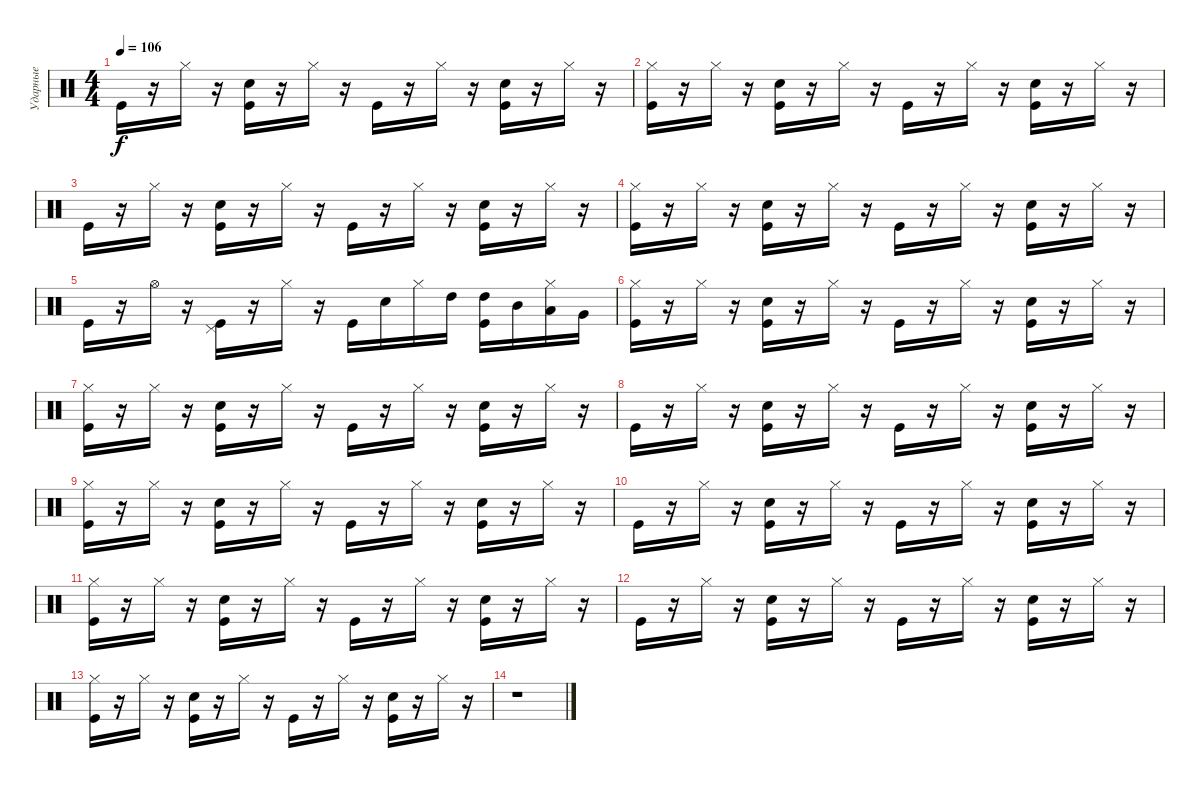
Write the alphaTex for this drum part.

\track ("Ударные" "Ударные") {instrument percussion}
\staff {score}
\articulation defaults
\ts (4 4)
\tempo 106
\clef neutral
\ks c "Kick (hit)".16{dy f}
r.16 "Hi-Hat (closed)".16 r.16 ("Snare (hit) 2" "Kick (hit)").16 r.16 "Hi-Hat (closed)".16 r.16 "Kick (hit)".16 r.16 "Hi-Hat (closed)".16 r.16 ("Snare (hit) 2" "Kick (hit)").16 r.16 "Hi-Hat (closed)".16 r.16 |
("Kick (hit)" "Hi-Hat (closed)").16 r.16 "Hi-Hat (closed)".16 r.16 ("Snare (hit) 2" "Kick (hit)").16 r.16 "Hi-Hat (closed)".16 r.16 "Kick (hit)".16 r.16 "Hi-Hat (closed)".16 r.16 ("Snare (hit) 2" "Kick (hit)").16 r.16 "Hi-Hat (closed)".16 r.16 |
"Kick (hit)".16 r.16 "Hi-Hat (closed)".16 r.16 ("Snare (hit) 2" "Kick (hit)").16 r.16 "Hi-Hat (closed)".16 r.16 "Kick (hit)".16 r.16 "Hi-Hat (closed)".16 r.16 ("Snare (hit) 2" "Kick (hit)").16 r.16 "Hi-Hat (closed)".16 r.16 |
("Kick (hit)" "Hi-Hat (closed)").16 r.16 "Hi-Hat (closed)".16 r.16 ("Snare (hit) 2" "Kick (hit)").16 r.16 "Hi-Hat (closed)".16 r.16 "Kick (hit)".16 r.16 "Hi-Hat (closed)".16 r.16 ("Snare (hit) 2" "Kick (hit)").16 r.16 "Hi-Hat (closed)".16 r.16 |
"Kick (hit)".16 r.16 "Hi-Hat (open)".16 r.16 ("Pedal Hi-Hat (hit)" "Kick (hit)").16 r.16 "Hi-Hat (closed)".16 r.16 "Kick (hit)".16 "Snare (hit) 2".16 "Hi-Hat (closed)".16 "High Tom (hit)".16 ("High Tom (hit)" "Kick (hit)").16 "Mid Tom (hit)".16 ("Low Tom (hit)" "Hi-Hat (closed)").16 "Very Low Tom (hit)".16 |
("Kick (hit)" "Hi-Hat (closed)").16 r.16 "Hi-Hat (closed)".16 r.16 ("Snare (hit) 2" "Kick (hit)").16 r.16 "Hi-Hat (closed)".16 r.16 "Kick (hit)".16 r.16 "Hi-Hat (closed)".16 r.16 ("Snare (hit) 2" "Kick (hit)").16 r.16 "Hi-Hat (closed)".16 r.16 |
("Kick (hit)" "Hi-Hat (closed)").16 r.16 "Hi-Hat (closed)".16 r.16 ("Snare (hit) 2" "Kick (hit)").16 r.16 "Hi-Hat (closed)".16 r.16 "Kick (hit)".16 r.16 "Hi-Hat (closed)".16 r.16 ("Snare (hit) 2" "Kick (hit)").16 r.16 "Hi-Hat (closed)".16 r.16 |
"Kick (hit)".16 r.16 "Hi-Hat (closed)".16 r.16 ("Snare (hit) 2" "Kick (hit)").16 r.16 "Hi-Hat (closed)".16 r.16 "Kick (hit)".16 r.16 "Hi-Hat (closed)".16 r.16 ("Snare (hit) 2" "Kick (hit)").16 r.16 "Hi-Hat (closed)".16 r.16 |
("Kick (hit)" "Hi-Hat (closed)").16 r.16 "Hi-Hat (closed)".16 r.16 ("Snare (hit) 2" "Kick (hit)").16 r.16 "Hi-Hat (closed)".16 r.16 "Kick (hit)".16 r.16 "Hi-Hat (closed)".16 r.16 ("Snare (hit) 2" "Kick (hit)").16 r.16 "Hi-Hat (closed)".16 r.16 |
"Kick (hit)".16 r.16 "Hi-Hat (closed)".16 r.16 ("Snare (hit) 2" "Kick (hit)").16 r.16 "Hi-Hat (closed)".16 r.16 "Kick (hit)".16 r.16 "Hi-Hat (closed)".16 r.16 ("Snare (hit) 2" "Kick (hit)").16 r.16 "Hi-Hat (closed)".16 r.16 |
("Kick (hit)" "Hi-Hat (closed)").16 r.16 "Hi-Hat (closed)".16 r.16 ("Snare (hit) 2" "Kick (hit)").16 r.16 "Hi-Hat (closed)".16 r.16 "Kick (hit)".16 r.16 "Hi-Hat (closed)".16 r.16 ("Snare (hit) 2" "Kick (hit)").16 r.16 "Hi-Hat (closed)".16 r.16 |
"Kick (hit)".16 r.16 "Hi-Hat (closed)".16 r.16 ("Snare (hit) 2" "Kick (hit)").16 r.16 "Hi-Hat (closed)".16 r.16 "Kick (hit)".16 r.16 "Hi-Hat (closed)".16 r.16 ("Snare (hit) 2" "Kick (hit)").16 r.16 "Hi-Hat (closed)".16 r.16 |
("Kick (hit)" "Hi-Hat (closed)").16 r.16 "Hi-Hat (closed)".16 r.16 ("Snare (hit) 2" "Kick (hit)").16 r.16 "Hi-Hat (closed)".16 r.16 "Kick (hit)".16 r.16 "Hi-Hat (closed)".16 r.16 ("Snare (hit) 2" "Kick (hit)").16 r.16 "Hi-Hat (closed)".16 r.16 |
r.1
